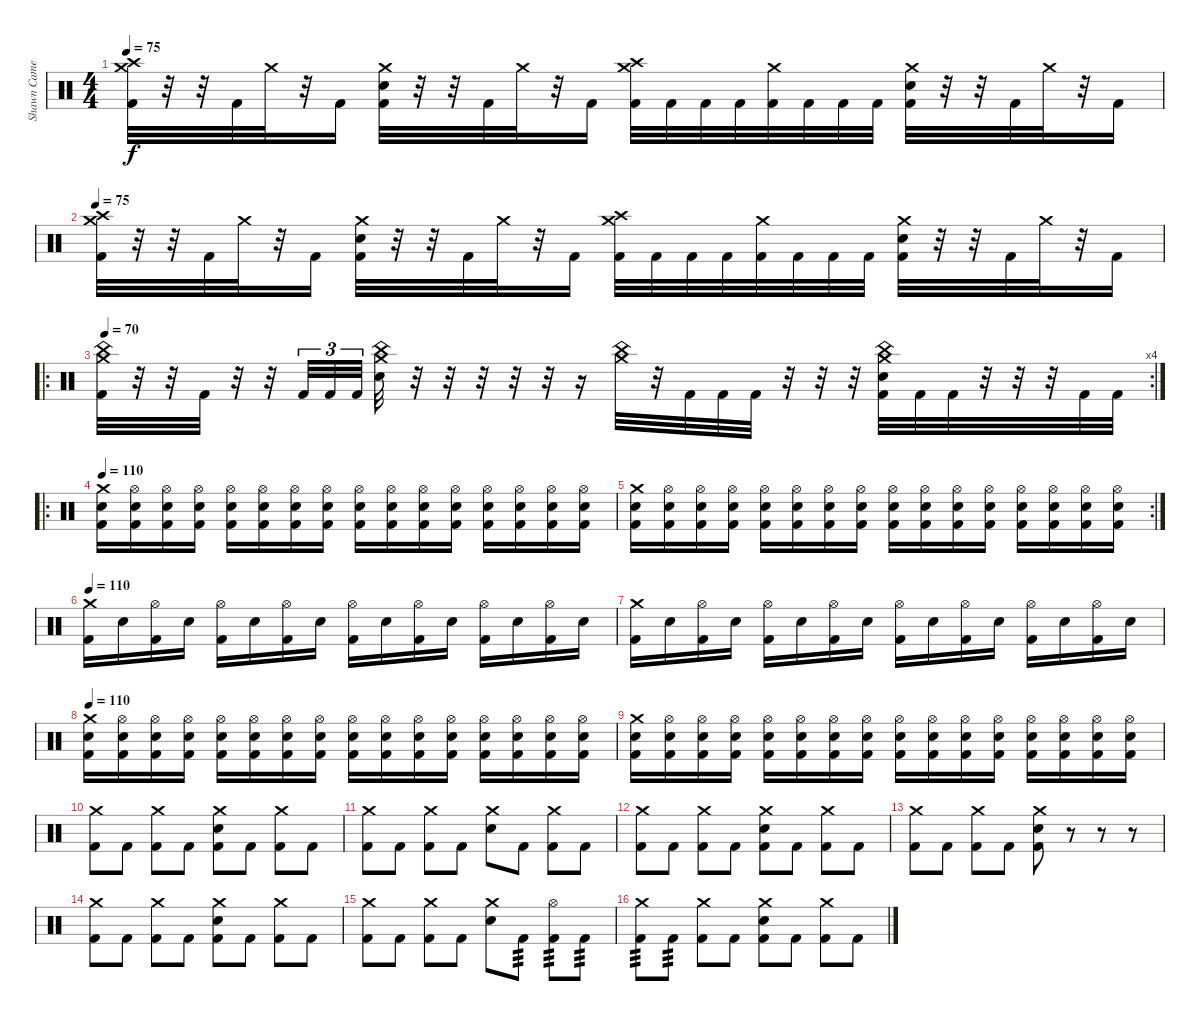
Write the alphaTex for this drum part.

\track ("Shawn Cameron" "Shawn Came") {instrument percussion}
\staff {score}
\articulation defaults
\ts (4 4)
\tempo 75
\clef neutral
\ks c
("Crash medium (hit)" "Crash high (hit)" "Kick (hit) 2").32{dy f} r.32 r.32 "Kick (hit) 2".32 "Crash medium (hit)".32 r.32 "Kick (hit) 2".16 ("Crash medium (hit)" "Electric Snare (hit)" "Kick (hit) 2").32 r.32 r.32 "Kick (hit) 2".32 "Crash medium (hit)".32 r.32 "Kick (hit) 2".16 ("Crash medium (hit)" "Crash high (hit)" "Kick (hit) 2").32 "Kick (hit) 2".32 "Kick (hit) 2".32 "Kick (hit) 2".32 ("Crash medium (hit)" "Kick (hit) 2").32 "Kick (hit) 2".32 "Kick (hit) 2".32 "Kick (hit) 2".32 ("Crash medium (hit)" "Electric Snare (hit)" "Kick (hit) 2").32 r.32 r.32 "Kick (hit) 2".32 "Crash medium (hit)".32 r.32 "Kick (hit) 2".16 |
\tempo 75
("Crash medium (hit)" "Crash high (hit)" "Kick (hit) 2").32 r.32 r.32 "Kick (hit) 2".32 "Crash medium (hit)".32 r.32 "Kick (hit) 2".16 ("Crash medium (hit)" "Electric Snare (hit)" "Kick (hit) 2").32 r.32 r.32 "Kick (hit) 2".32 "Crash medium (hit)".32 r.32 "Kick (hit) 2".16 ("Crash medium (hit)" "Crash high (hit)" "Kick (hit) 2").32 "Kick (hit) 2".32 "Kick (hit) 2".32 "Kick (hit) 2".32 ("Crash medium (hit)" "Kick (hit) 2").32 "Kick (hit) 2".32 "Kick (hit) 2".32 "Kick (hit) 2".32 ("Crash medium (hit)" "Electric Snare (hit)" "Kick (hit) 2").32 r.32 r.32 "Kick (hit) 2".32 "Crash medium (hit)".32 r.32 "Kick (hit) 2".16 |
\ro
\rc 4
\tempo 70
("China (hit)" "Crash medium (hit)" "Kick (hit) 2").32 r.32 r.32 "Kick (hit) 2".32 r.32 r.32 "Kick (hit) 2".32{tu (3 2)} "Kick (hit) 2".32{tu (3 2)} "Kick (hit) 2".32{tu (3 2)} ("China (hit)" "Crash medium (hit)" "Electric Snare (hit)").32 r.32 r.32 r.32 r.32 r.32 r.16 ("China (hit)" "Crash medium (hit)").32 r.32 "Kick (hit) 2".32 "Kick (hit) 2".32 "Kick (hit) 2".32 r.32 r.32 r.32 ("China (hit)" "Crash medium (hit)" "Electric Snare (hit)" "Kick (hit) 2").32 "Kick (hit) 2".32 "Kick (hit) 2".32 r.32 r.32 r.32 "Kick (hit) 2".32 "Kick (hit) 2".32 |
\ro
\tempo 110
("Crash medium (hit)" "Electric Snare (hit)" "Kick (hit) 2").16 ("Hi-Hat (open)" "Electric Snare (hit)" "Kick (hit) 2").16 ("Hi-Hat (open)" "Electric Snare (hit)" "Kick (hit) 2").16 ("Hi-Hat (open)" "Electric Snare (hit)" "Kick (hit) 2").16 ("Hi-Hat (open)" "Electric Snare (hit)" "Kick (hit) 2").16 ("Hi-Hat (open)" "Electric Snare (hit)" "Kick (hit) 2").16 ("Hi-Hat (open)" "Electric Snare (hit)" "Kick (hit) 2").16 ("Hi-Hat (open)" "Electric Snare (hit)" "Kick (hit) 2").16 ("Hi-Hat (open)" "Electric Snare (hit)" "Kick (hit) 2").16 ("Hi-Hat (open)" "Electric Snare (hit)" "Kick (hit) 2").16 ("Hi-Hat (open)" "Electric Snare (hit)" "Kick (hit) 2").16 ("Hi-Hat (open)" "Electric Snare (hit)" "Kick (hit) 2").16 ("Hi-Hat (open)" "Electric Snare (hit)" "Kick (hit) 2").16 ("Hi-Hat (open)" "Electric Snare (hit)" "Kick (hit) 2").16 ("Hi-Hat (open)" "Electric Snare (hit)" "Kick (hit) 2").16 ("Hi-Hat (open)" "Electric Snare (hit)" "Kick (hit) 2").16 |
\rc 2
("Crash medium (hit)" "Electric Snare (hit)" "Kick (hit) 2").16 ("Hi-Hat (open)" "Electric Snare (hit)" "Kick (hit) 2").16 ("Hi-Hat (open)" "Electric Snare (hit)" "Kick (hit) 2").16 ("Hi-Hat (open)" "Electric Snare (hit)" "Kick (hit) 2").16 ("Hi-Hat (open)" "Electric Snare (hit)" "Kick (hit) 2").16 ("Hi-Hat (open)" "Electric Snare (hit)" "Kick (hit) 2").16 ("Hi-Hat (open)" "Electric Snare (hit)" "Kick (hit) 2").16 ("Hi-Hat (open)" "Electric Snare (hit)" "Kick (hit) 2").16 ("Hi-Hat (open)" "Electric Snare (hit)" "Kick (hit) 2").16 ("Hi-Hat (open)" "Electric Snare (hit)" "Kick (hit) 2").16 ("Hi-Hat (open)" "Electric Snare (hit)" "Kick (hit) 2").16 ("Hi-Hat (open)" "Electric Snare (hit)" "Kick (hit) 2").16 ("Hi-Hat (open)" "Electric Snare (hit)" "Kick (hit) 2").16 ("Hi-Hat (open)" "Electric Snare (hit)" "Kick (hit) 2").16 ("Hi-Hat (open)" "Electric Snare (hit)" "Kick (hit) 2").16 ("Hi-Hat (open)" "Electric Snare (hit)" "Kick (hit) 2").16 |
\tempo 110
("Crash medium (hit)" "Kick (hit) 2").16 "Electric Snare (hit)".16 ("Hi-Hat (open)" "Kick (hit) 2").16 "Electric Snare (hit)".16 ("Hi-Hat (open)" "Kick (hit) 2").16 "Electric Snare (hit)".16 ("Hi-Hat (open)" "Kick (hit) 2").16 "Electric Snare (hit)".16 ("Hi-Hat (open)" "Kick (hit) 2").16 "Electric Snare (hit)".16 ("Hi-Hat (open)" "Kick (hit) 2").16 "Electric Snare (hit)".16 ("Hi-Hat (open)" "Kick (hit) 2").16 "Electric Snare (hit)".16 ("Hi-Hat (open)" "Kick (hit) 2").16 "Electric Snare (hit)".16 |
("Crash medium (hit)" "Kick (hit) 2").16 "Electric Snare (hit)".16 ("Hi-Hat (open)" "Kick (hit) 2").16 "Electric Snare (hit)".16 ("Hi-Hat (open)" "Kick (hit) 2").16 "Electric Snare (hit)".16 ("Hi-Hat (open)" "Kick (hit) 2").16 "Electric Snare (hit)".16 ("Hi-Hat (open)" "Kick (hit) 2").16 "Electric Snare (hit)".16 ("Hi-Hat (open)" "Kick (hit) 2").16 "Electric Snare (hit)".16 ("Hi-Hat (open)" "Kick (hit) 2").16 "Electric Snare (hit)".16 ("Hi-Hat (open)" "Kick (hit) 2").16 "Electric Snare (hit)".16 |
\tempo 110
("Crash medium (hit)" "Electric Snare (hit)" "Kick (hit) 2").16 ("Hi-Hat (open)" "Electric Snare (hit)" "Kick (hit) 2").16 ("Hi-Hat (open)" "Electric Snare (hit)" "Kick (hit) 2").16 ("Hi-Hat (open)" "Electric Snare (hit)" "Kick (hit) 2").16 ("Hi-Hat (open)" "Electric Snare (hit)" "Kick (hit) 2").16 ("Hi-Hat (open)" "Electric Snare (hit)" "Kick (hit) 2").16 ("Hi-Hat (open)" "Electric Snare (hit)" "Kick (hit) 2").16 ("Hi-Hat (open)" "Electric Snare (hit)" "Kick (hit) 2").16 ("Hi-Hat (open)" "Electric Snare (hit)" "Kick (hit) 2").16 ("Hi-Hat (open)" "Electric Snare (hit)" "Kick (hit) 2").16 ("Hi-Hat (open)" "Electric Snare (hit)" "Kick (hit) 2").16 ("Hi-Hat (open)" "Electric Snare (hit)" "Kick (hit) 2").16 ("Hi-Hat (open)" "Electric Snare (hit)" "Kick (hit) 2").16 ("Hi-Hat (open)" "Electric Snare (hit)" "Kick (hit) 2").16 ("Hi-Hat (open)" "Electric Snare (hit)" "Kick (hit) 2").16 ("Hi-Hat (open)" "Electric Snare (hit)" "Kick (hit) 2").16 |
("Crash medium (hit)" "Electric Snare (hit)" "Kick (hit) 2").16 ("Hi-Hat (open)" "Electric Snare (hit)" "Kick (hit) 2").16 ("Hi-Hat (open)" "Electric Snare (hit)" "Kick (hit) 2").16 ("Hi-Hat (open)" "Electric Snare (hit)" "Kick (hit) 2").16 ("Hi-Hat (open)" "Electric Snare (hit)" "Kick (hit) 2").16 ("Hi-Hat (open)" "Electric Snare (hit)" "Kick (hit) 2").16 ("Hi-Hat (open)" "Electric Snare (hit)" "Kick (hit) 2").16 ("Hi-Hat (open)" "Electric Snare (hit)" "Kick (hit) 2").16 ("Hi-Hat (open)" "Electric Snare (hit)" "Kick (hit) 2").16 ("Hi-Hat (open)" "Electric Snare (hit)" "Kick (hit) 2").16 ("Hi-Hat (open)" "Electric Snare (hit)" "Kick (hit) 2").16 ("Hi-Hat (open)" "Electric Snare (hit)" "Kick (hit) 2").16 ("Hi-Hat (open)" "Electric Snare (hit)" "Kick (hit) 2").16 ("Hi-Hat (open)" "Electric Snare (hit)" "Kick (hit) 2").16 ("Hi-Hat (open)" "Electric Snare (hit)" "Kick (hit) 2").16 ("Hi-Hat (open)" "Electric Snare (hit)" "Kick (hit) 2").16 |
("Crash medium (hit)" "Kick (hit) 2").8 "Kick (hit) 2".8 ("Crash medium (hit)" "Kick (hit) 2").8 "Kick (hit) 2".8 ("Crash medium (hit)" "Electric Snare (hit)" "Kick (hit) 2").8 "Kick (hit) 2".8 ("Crash medium (hit)" "Kick (hit) 2").8 "Kick (hit) 2".8 |
("Crash medium (hit)" "Kick (hit) 2").8 "Kick (hit) 2".8 ("Crash medium (hit)" "Kick (hit) 2").8 "Kick (hit) 2".8 ("Crash medium (hit)" "Electric Snare (hit)").8 "Kick (hit) 2".8 ("Crash medium (hit)" "Kick (hit) 2").8 "Kick (hit) 2".8 |
("Crash medium (hit)" "Kick (hit) 2").8 "Kick (hit) 2".8 ("Crash medium (hit)" "Kick (hit) 2").8 "Kick (hit) 2".8 ("Crash medium (hit)" "Electric Snare (hit)" "Kick (hit) 2").8 "Kick (hit) 2".8 ("Crash medium (hit)" "Kick (hit) 2").8 "Kick (hit) 2".8 |
("Crash medium (hit)" "Kick (hit) 2").8 "Kick (hit) 2".8 ("Crash medium (hit)" "Kick (hit) 2").8 "Kick (hit) 2".8 ("Crash medium (hit)" "Electric Snare (hit)" "Kick (hit) 2").8 r.8 r.8 r.8 |
("Crash medium (hit)" "Kick (hit) 2").8 "Kick (hit) 2".8 ("Crash medium (hit)" "Kick (hit) 2").8 "Kick (hit) 2".8 ("Crash medium (hit)" "Electric Snare (hit)" "Kick (hit) 2").8 "Kick (hit) 2".8 ("Crash medium (hit)" "Kick (hit) 2").8 "Kick (hit) 2".8 |
("Crash medium (hit)" "Kick (hit) 2").8 "Kick (hit) 2".8 ("Crash medium (hit)" "Kick (hit) 2").8 "Kick (hit) 2".8 ("Crash medium (hit)" "Electric Snare (hit)").8 "Kick (hit) 2".8{tp 3} ("Hi-Hat (open)" "Kick (hit) 2").8{tp 3} "Kick (hit) 2".8{tp 3} |
("Crash medium (hit)" "Kick (hit) 2").8{tp 3} "Kick (hit) 2".8{tp 3} ("Crash medium (hit)" "Kick (hit) 2").8 "Kick (hit) 2".8 ("Crash medium (hit)" "Electric Snare (hit)" "Kick (hit) 2").8 "Kick (hit) 2".8 ("Crash medium (hit)" "Kick (hit) 2").8 "Kick (hit) 2".8
